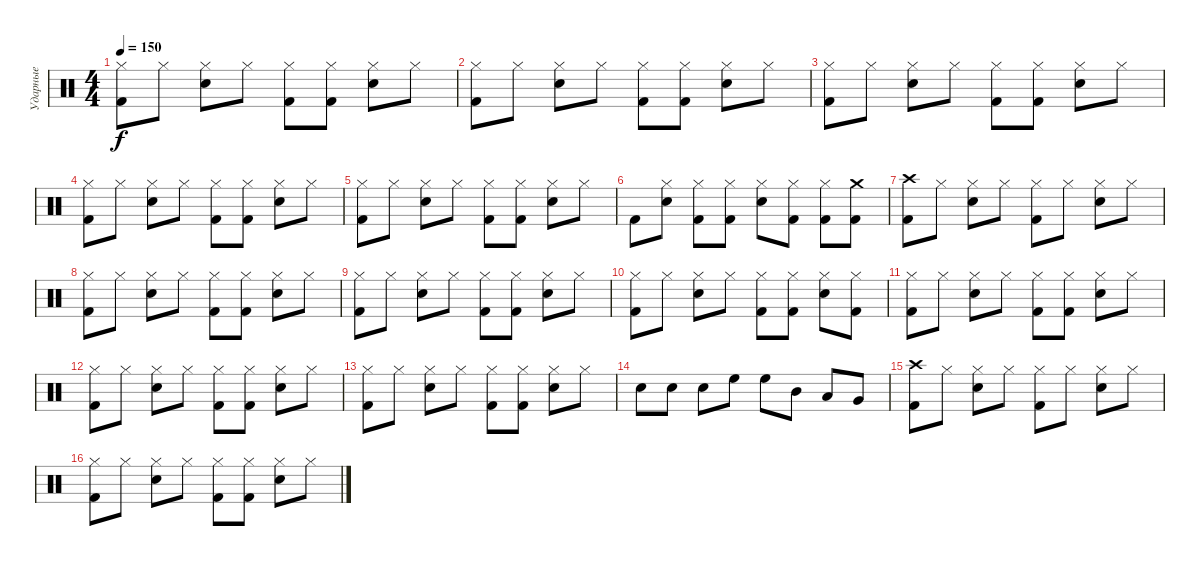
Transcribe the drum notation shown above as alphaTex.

\track ("Ударные" "Ударные") {instrument percussion}
\staff {score}
\articulation defaults
\ts (4 4)
\tempo 150
\clef neutral
\ks c
("Hi-Hat (closed)" "Kick (hit) 2").8{dy f} "Hi-Hat (closed)".8 ("Hi-Hat (closed)" "Snare (hit) 2").8 "Hi-Hat (closed)".8 ("Hi-Hat (closed)" "Kick (hit) 2").8 ("Hi-Hat (closed)" "Kick (hit) 2").8 ("Hi-Hat (closed)" "Snare (hit) 2").8 "Hi-Hat (closed)".8 |
("Hi-Hat (closed)" "Kick (hit) 2").8 "Hi-Hat (closed)".8 ("Hi-Hat (closed)" "Snare (hit) 2").8 "Hi-Hat (closed)".8 ("Hi-Hat (closed)" "Kick (hit) 2").8 ("Hi-Hat (closed)" "Kick (hit) 2").8 ("Hi-Hat (closed)" "Snare (hit) 2").8 "Hi-Hat (closed)".8 |
("Hi-Hat (closed)" "Kick (hit) 2").8 "Hi-Hat (closed)".8 ("Hi-Hat (closed)" "Snare (hit) 2").8 "Hi-Hat (closed)".8 ("Hi-Hat (closed)" "Kick (hit) 2").8 ("Hi-Hat (closed)" "Kick (hit) 2").8 ("Hi-Hat (closed)" "Snare (hit) 2").8 "Hi-Hat (closed)".8 |
("Hi-Hat (closed)" "Kick (hit) 2").8 "Hi-Hat (closed)".8 ("Hi-Hat (closed)" "Snare (hit) 2").8 "Hi-Hat (closed)".8 ("Hi-Hat (closed)" "Kick (hit) 2").8 ("Hi-Hat (closed)" "Kick (hit) 2").8 ("Hi-Hat (closed)" "Snare (hit) 2").8 "Hi-Hat (closed)".8 |
("Hi-Hat (closed)" "Kick (hit) 2").8 "Hi-Hat (closed)".8 ("Hi-Hat (closed)" "Snare (hit) 2").8 "Hi-Hat (closed)".8 ("Hi-Hat (closed)" "Kick (hit) 2").8 ("Hi-Hat (closed)" "Kick (hit) 2").8 ("Hi-Hat (closed)" "Snare (hit) 2").8 "Hi-Hat (closed)".8 |
"Kick (hit) 2".8 ("Hi-Hat (closed)" "Snare (hit) 2").8 ("Hi-Hat (closed)" "Kick (hit) 2").8 ("Hi-Hat (closed)" "Kick (hit) 2").8 ("Hi-Hat (closed)" "Snare (hit) 2").8 ("Hi-Hat (closed)" "Kick (hit) 2").8 ("Hi-Hat (closed)" "Kick (hit) 2").8 ("Crash medium (hit)" "Kick (hit) 2").8 |
("Crash high (hit)" "Kick (hit) 2").8 "Hi-Hat (closed)".8 ("Hi-Hat (closed)" "Snare (hit) 2").8 "Hi-Hat (closed)".8 ("Hi-Hat (closed)" "Kick (hit) 2").8 "Hi-Hat (closed)".8 ("Hi-Hat (closed)" "Snare (hit) 2").8 "Hi-Hat (closed)".8 |
("Hi-Hat (closed)" "Kick (hit) 2").8 "Hi-Hat (closed)".8 ("Hi-Hat (closed)" "Snare (hit) 2").8 "Hi-Hat (closed)".8 ("Hi-Hat (closed)" "Kick (hit) 2").8 ("Hi-Hat (closed)" "Kick (hit) 2").8 ("Hi-Hat (closed)" "Snare (hit) 2").8 "Hi-Hat (closed)".8 |
("Hi-Hat (closed)" "Kick (hit) 2").8 "Hi-Hat (closed)".8 ("Hi-Hat (closed)" "Snare (hit) 2").8 "Hi-Hat (closed)".8 ("Hi-Hat (closed)" "Kick (hit) 2").8 ("Hi-Hat (closed)" "Kick (hit) 2").8 ("Hi-Hat (closed)" "Snare (hit) 2").8 "Hi-Hat (closed)".8 |
("Hi-Hat (closed)" "Kick (hit) 2").8 "Hi-Hat (closed)".8 ("Hi-Hat (closed)" "Snare (hit) 2").8 "Hi-Hat (closed)".8 ("Hi-Hat (closed)" "Kick (hit) 2").8 ("Hi-Hat (closed)" "Kick (hit) 2").8 ("Hi-Hat (closed)" "Snare (hit) 2").8 ("Hi-Hat (closed)" "Kick (hit) 2").8 |
("Hi-Hat (closed)" "Kick (hit) 2").8 "Hi-Hat (closed)".8 ("Hi-Hat (closed)" "Snare (hit) 2").8 "Hi-Hat (closed)".8 ("Hi-Hat (closed)" "Kick (hit) 2").8 ("Hi-Hat (closed)" "Kick (hit) 2").8 ("Hi-Hat (closed)" "Snare (hit) 2").8 "Hi-Hat (closed)".8 |
("Hi-Hat (closed)" "Kick (hit) 2").8 "Hi-Hat (closed)".8 ("Hi-Hat (closed)" "Snare (hit) 2").8 "Hi-Hat (closed)".8 ("Hi-Hat (closed)" "Kick (hit) 2").8 ("Hi-Hat (closed)" "Kick (hit) 2").8 ("Hi-Hat (closed)" "Snare (hit) 2").8 "Hi-Hat (closed)".8 |
("Hi-Hat (closed)" "Kick (hit) 2").8 "Hi-Hat (closed)".8 ("Hi-Hat (closed)" "Snare (hit) 2").8 "Hi-Hat (closed)".8 ("Hi-Hat (closed)" "Kick (hit) 2").8 ("Hi-Hat (closed)" "Kick (hit) 2").8 ("Hi-Hat (closed)" "Snare (hit) 2").8 "Hi-Hat (closed)".8 |
"Snare (hit) 2".8 "Snare (hit) 2".8 "Snare (hit) 2".8 "High Floor Tom (hit)".8 "High Floor Tom (hit)".8 "Mid Tom (hit)".8 "Low Tom (hit)".8 "Very Low Tom (hit)".8 |
("Crash high (hit)" "Kick (hit) 2").8 "Hi-Hat (closed)".8 ("Hi-Hat (closed)" "Snare (hit) 2").8 "Hi-Hat (closed)".8 ("Hi-Hat (closed)" "Kick (hit) 2").8 "Hi-Hat (closed)".8 ("Hi-Hat (closed)" "Snare (hit) 2").8 "Hi-Hat (closed)".8 |
("Hi-Hat (closed)" "Kick (hit) 2").8 "Hi-Hat (closed)".8 ("Hi-Hat (closed)" "Snare (hit) 2").8 "Hi-Hat (closed)".8 ("Hi-Hat (closed)" "Kick (hit) 2").8 ("Hi-Hat (closed)" "Kick (hit) 2").8 ("Hi-Hat (closed)" "Snare (hit) 2").8 "Hi-Hat (closed)".8
